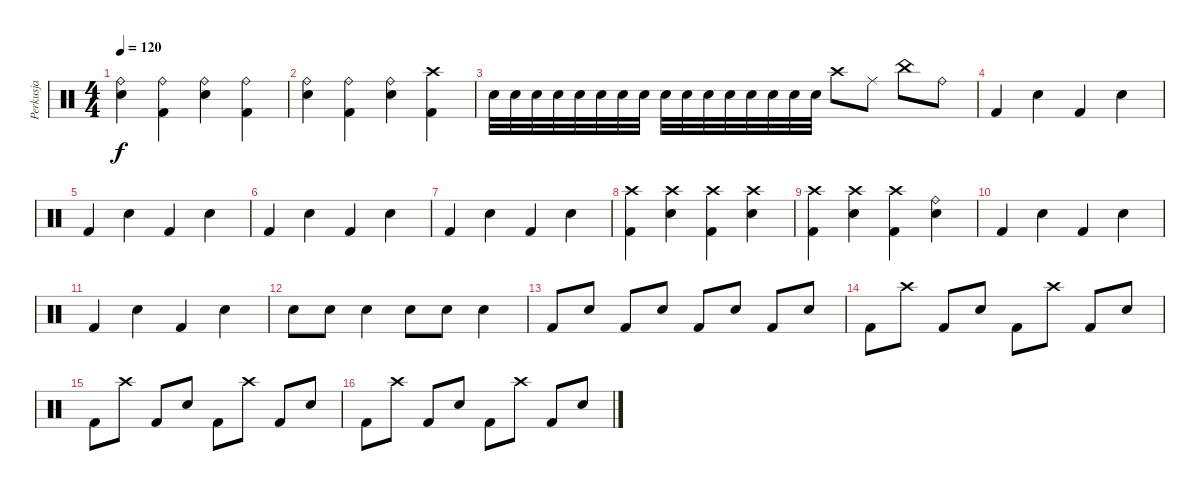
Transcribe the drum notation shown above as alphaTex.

\track ("Perkusja" "Perkusja") {instrument percussion}
\staff {score}
\articulation defaults
\ts (4 4)
\tempo 120
\clef neutral
\ks c
("Ride (bell)" "Snare (hit) 2").4{dy f} ("Ride (bell)" "Kick (hit) 2").4 ("Ride (bell)" "Snare (hit) 2").4 ("Ride (bell)" "Kick (hit) 2").4 |
("Ride (bell)" "Snare (hit) 2").4 ("Ride (bell)" "Kick (hit) 2").4 ("Ride (bell)" "Snare (hit) 2").4 ("Crash high (hit)" "Kick (hit) 2").4 |
"Snare (hit) 2".32 "Snare (hit) 2".32 "Snare (hit) 2".32 "Snare (hit) 2".32 "Snare (hit) 2".32 "Snare (hit) 2".32 "Snare (hit) 2".32 "Snare (hit) 2".32 "Snare (hit) 2".32 "Snare (hit) 2".32 "Snare (hit) 2".32 "Snare (hit) 2".32 "Snare (hit) 2".32 "Snare (hit) 2".32 "Snare (hit) 2".32 "Snare (hit) 2".32 "Crash high (hit)".8 "Ride (middle)".8 "China (hit)".8 "Ride (bell)".8 |
"Kick (hit) 2".4 "Snare (hit) 2".4 "Kick (hit) 2".4 "Snare (hit) 2".4 |
"Kick (hit) 2".4 "Snare (hit) 2".4 "Kick (hit) 2".4 "Snare (hit) 2".4 |
"Kick (hit) 2".4 "Snare (hit) 2".4 "Kick (hit) 2".4 "Snare (hit) 2".4 |
"Kick (hit) 2".4 "Snare (hit) 2".4 "Kick (hit) 2".4 "Snare (hit) 2".4 |
("Crash high (hit)" "Kick (hit) 2").4 ("Snare (hit) 2" "Crash high (hit)").4 ("Crash high (hit)" "Kick (hit) 2").4 ("Snare (hit) 2" "Crash high (hit)").4 |
("Crash high (hit)" "Kick (hit) 2").4 ("Snare (hit) 2" "Crash high (hit)").4 ("Crash high (hit)" "Kick (hit) 2").4 ("Ride (bell)" "Snare (hit) 2").4 |
"Kick (hit) 2".4 "Snare (hit) 2".4 "Kick (hit) 2".4 "Snare (hit) 2".4 |
"Kick (hit) 2".4 "Snare (hit) 2".4 "Kick (hit) 2".4 "Snare (hit) 2".4 |
"Snare (hit) 2".8 "Snare (hit) 2".8 "Snare (hit) 2".4 "Snare (hit) 2".8 "Snare (hit) 2".8 "Snare (hit) 2".4 |
"Kick (hit) 2".8 "Snare (hit) 2".8 "Kick (hit) 2".8 "Snare (hit) 2".8 "Kick (hit) 2".8 "Snare (hit) 2".8 "Kick (hit) 2".8 "Snare (hit) 2".8 |
"Kick (hit) 2".8 "Crash high (hit)".8 "Kick (hit) 2".8 "Snare (hit) 2".8 "Kick (hit) 2".8 "Crash high (hit)".8 "Kick (hit) 2".8 "Snare (hit) 2".8 |
"Kick (hit) 2".8 "Crash high (hit)".8 "Kick (hit) 2".8 "Snare (hit) 2".8 "Kick (hit) 2".8 "Crash high (hit)".8 "Kick (hit) 2".8 "Snare (hit) 2".8 |
"Kick (hit) 2".8 "Crash high (hit)".8 "Kick (hit) 2".8 "Snare (hit) 2".8 "Kick (hit) 2".8 "Crash high (hit)".8 "Kick (hit) 2".8 "Snare (hit) 2".8
